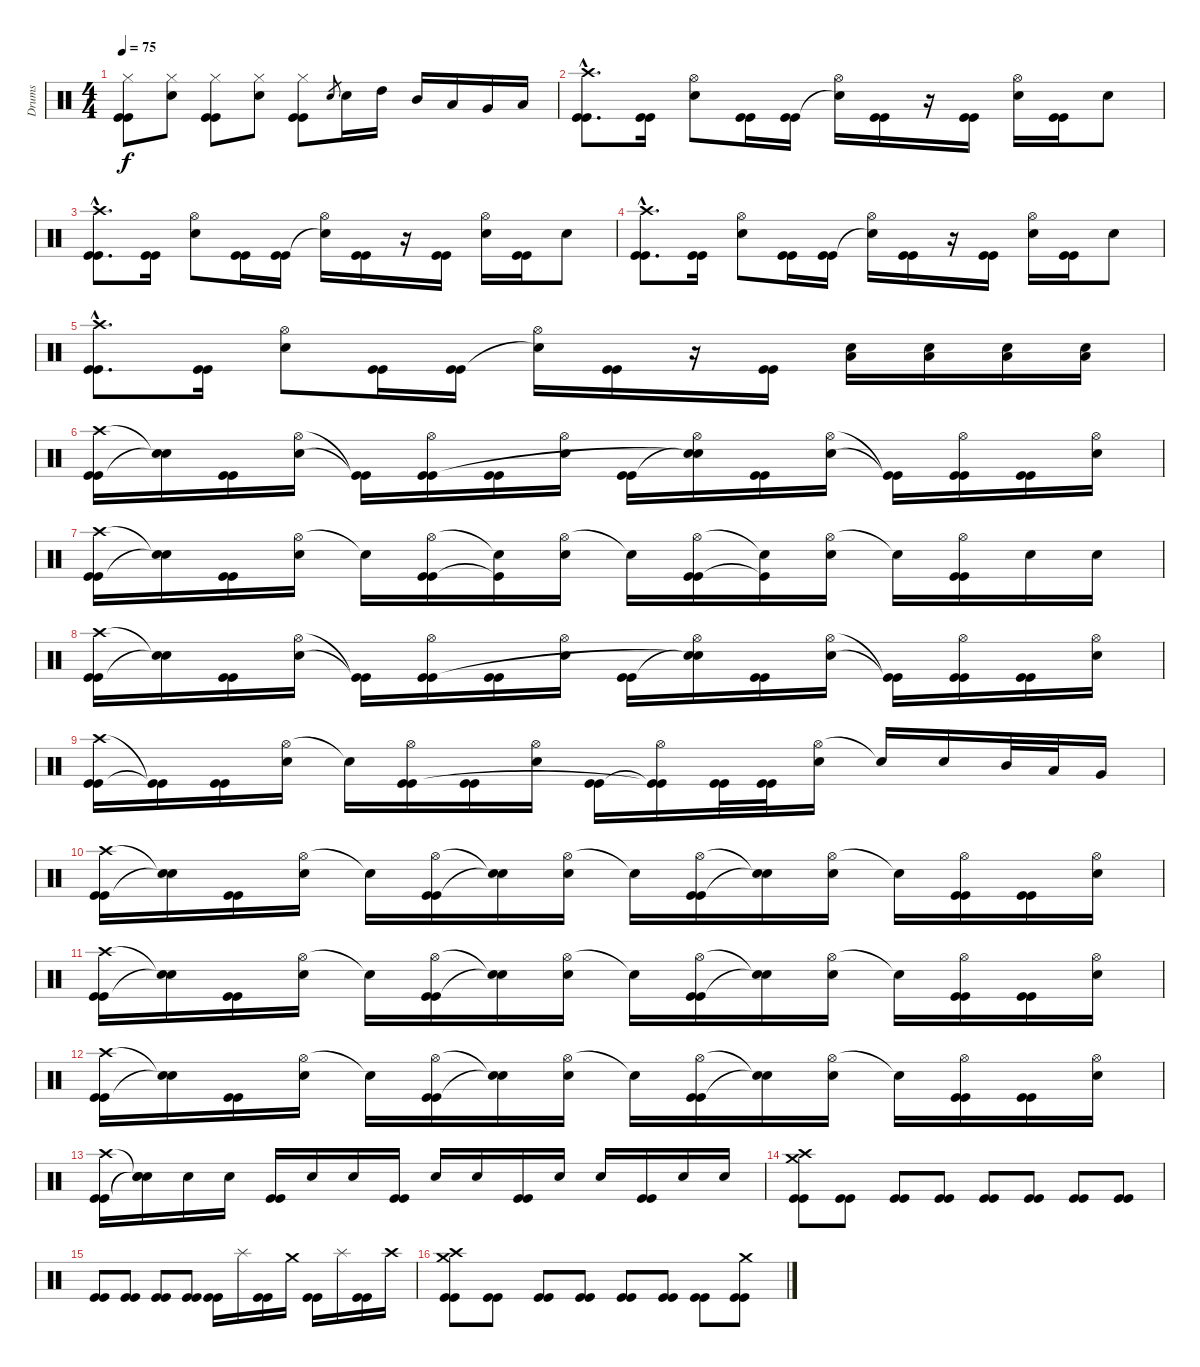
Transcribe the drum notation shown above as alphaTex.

\track ("Drums" "Drums") {instrument percussion}
\staff {score}
\articulation defaults
\ts (4 4)
\tempo 75
\clef neutral
\ks c
("Hi-Hat (closed)" "Kick (hit)" "Kick (hit)").8{dy f} ("Hi-Hat (closed)" "Snare (hit) 2").8 ("Hi-Hat (closed)" "Kick (hit)" "Kick (hit)").8 ("Hi-Hat (closed)" "Snare (hit) 2").8 ("Hi-Hat (closed)" "Kick (hit)" "Kick (hit)").8 "Snare (hit) 2".8{gr} "Snare (hit) 2".16 "High Tom (hit)".16 "Mid Tom (hit)".16 "Low Tom (hit)".16 "Very Low Tom (hit)".16 "Low Floor Tom (hit)".16 |
("Crash high (hit)"{hac} "Kick (hit)"{hac} "Kick (hit)"{hac}).8{d} ("Kick (hit)" "Kick (hit)").16 ("Hi-Hat (open)" "Snare (hit) 2").8 ("Kick (hit)" "Kick (hit)").16 ("Kick (hit)" "Kick (hit)").16 ("Hi-Hat (open)" "Snare (hit)"{t}).16 ("Kick (hit)" "Kick (hit)").16 r.16 ("Kick (hit)" "Kick (hit)").16 ("Hi-Hat (open)" "Snare (hit) 2").16 ("Kick (hit)" "Kick (hit)").16 "Snare (hit) 2".8 |
("Crash high (hit)"{hac} "Kick (hit)"{hac} "Kick (hit)"{hac}).8{d} ("Kick (hit)" "Kick (hit)").16 ("Hi-Hat (open)" "Snare (hit) 2").8 ("Kick (hit)" "Kick (hit)").16 ("Kick (hit)" "Kick (hit)").16 ("Hi-Hat (open)" "Snare (hit)"{t}).16 ("Kick (hit)" "Kick (hit)").16 r.16 ("Kick (hit)" "Kick (hit)").16 ("Hi-Hat (open)" "Snare (hit) 2").16 ("Kick (hit)" "Kick (hit)").16 "Snare (hit) 2".8 |
("Crash high (hit)"{hac} "Kick (hit)"{hac} "Kick (hit)"{hac}).8{d} ("Kick (hit)" "Kick (hit)").16 ("Hi-Hat (open)" "Snare (hit) 2").8 ("Kick (hit)" "Kick (hit)").16 ("Kick (hit)" "Kick (hit)").16 ("Hi-Hat (open)" "Snare (hit)"{t}).16 ("Kick (hit)" "Kick (hit)").16 r.16 ("Kick (hit)" "Kick (hit)").16 ("Hi-Hat (open)" "Snare (hit) 2").16 ("Kick (hit)" "Kick (hit)").16 "Snare (hit) 2".8 |
("Crash high (hit)"{hac} "Kick (hit)"{hac} "Kick (hit)"{hac}).8{d} ("Kick (hit)" "Kick (hit)").16 ("Hi-Hat (open)" "Snare (hit) 2").8 ("Kick (hit)" "Kick (hit)").16 ("Kick (hit)" "Kick (hit)").16 ("Hi-Hat (open)" "Snare (hit)"{t}).16 ("Kick (hit)" "Kick (hit)").16 r.16 ("Kick (hit)" "Kick (hit)").16 ("Snare (hit) 2" "Low Floor Tom (hit)").16 ("Snare (hit) 2" "Low Floor Tom (hit)").16 ("Snare (hit) 2" "Low Floor Tom (hit)").16 ("Snare (hit) 2" "Low Floor Tom (hit)").16 |
("Crash high (hit)" "Kick (hit)" "Kick (hit)").16 ("Snare (hit)"{t} "Snare (hit)"{t}).16 ("Kick (hit)" "Kick (hit)").16 ("Hi-Hat (open)" "Snare (hit) 2").16 ("Kick (hit)"{t} "Kick (hit)"{t}).16 ("Hi-Hat (open)" "Kick (hit)" "Kick (hit)").16 ("Kick (hit)" "Kick (hit)").16 ("Hi-Hat (open)" "Snare (hit) 2").16 ("Kick (hit)" "Kick (hit)").16 ("Hi-Hat (open)" "Snare (hit)"{t} "Snare (hit)"{t}).16 ("Kick (hit)" "Kick (hit)").16 ("Hi-Hat (open)" "Snare (hit) 2").16 ("Kick (hit)"{t} "Kick (hit)"{t}).16 ("Hi-Hat (open)" "Kick (hit)" "Kick (hit)").16 ("Kick (hit)" "Kick (hit)").16 ("Hi-Hat (open)" "Snare (hit) 2").16 |
("Crash high (hit)" "Kick (hit)" "Kick (hit)").16 ("Snare (hit)"{t} "Snare (hit)"{t}).16 ("Kick (hit)" "Kick (hit)").16 ("Hi-Hat (open)" "Snare (hit) 2").16 "Snare (hit)"{t}.16 ("Hi-Hat (open)" "Kick (hit)" "Kick (hit)").16 ("Snare (hit)"{t} "Kick (hit)"{t}).16 ("Hi-Hat (open)" "Snare (hit) 2").16 "Snare (hit)"{t}.16 ("Hi-Hat (open)" "Kick (hit)" "Kick (hit)").16 ("Snare (hit)"{t} "Kick (hit)"{t}).16 ("Hi-Hat (open)" "Snare (hit) 2").16 "Snare (hit)"{t}.16 ("Hi-Hat (open)" "Kick (hit)" "Kick (hit)").16 "Snare (hit) 2".16 "Snare (hit) 2".16 |
("Crash high (hit)" "Kick (hit)" "Kick (hit)").16 ("Snare (hit)"{t} "Snare (hit)"{t}).16 ("Kick (hit)" "Kick (hit)").16 ("Hi-Hat (open)" "Snare (hit) 2").16 ("Kick (hit)"{t} "Kick (hit)"{t}).16 ("Hi-Hat (open)" "Kick (hit)" "Kick (hit)").16 ("Kick (hit)" "Kick (hit)").16 ("Hi-Hat (open)" "Snare (hit) 2").16 ("Kick (hit)" "Kick (hit)").16 ("Hi-Hat (open)" "Snare (hit)"{t} "Snare (hit)"{t}).16 ("Kick (hit)" "Kick (hit)").16 ("Hi-Hat (open)" "Snare (hit) 2").16 ("Kick (hit)"{t} "Kick (hit)"{t}).16 ("Hi-Hat (open)" "Kick (hit)" "Kick (hit)").16 ("Kick (hit)" "Kick (hit)").16 ("Hi-Hat (open)" "Snare (hit) 2").16 |
("Crash high (hit)" "Kick (hit)" "Kick (hit)").16 ("Kick (hit)"{t} "Kick (hit)"{t}).16 ("Kick (hit)" "Kick (hit)").16 ("Hi-Hat (open)" "Snare (hit) 2").16 "Snare (hit)"{t}.16 ("Hi-Hat (open)" "Kick (hit)" "Kick (hit)").16 ("Kick (hit)" "Kick (hit)").16 ("Hi-Hat (open)" "Snare (hit) 2").16 ("Kick (hit)" "Kick (hit)").16 ("Hi-Hat (open)" "Kick (hit)"{t} "Kick (hit)"{t}).16 ("Kick (hit)" "Kick (hit)").32 ("Kick (hit)" "Kick (hit)").32 ("Hi-Hat (open)" "Snare (hit) 2").16 "Snare (hit)"{t}.16 "Snare (hit) 2".16 "Mid Tom (hit)".32 "Low Tom (hit)".32 "Very Low Tom (hit)".16 |
("Crash high (hit)" "Kick (hit)" "Kick (hit)").16 ("Snare (hit)"{t} "Snare (hit)"{t}).16 ("Kick (hit)" "Kick (hit)").16 ("Hi-Hat (open)" "Snare (hit) 2").16 "Snare (hit)"{t}.16 ("Hi-Hat (open)" "Kick (hit)" "Kick (hit)").16 ("Snare (hit)"{t} "Snare (hit)"{t}).16 ("Hi-Hat (open)" "Snare (hit) 2").16 "Snare (hit)"{t}.16 ("Hi-Hat (open)" "Kick (hit)" "Kick (hit)").16 ("Snare (hit)"{t} "Snare (hit)"{t}).16 ("Hi-Hat (open)" "Snare (hit) 2").16 "Snare (hit)"{t}.16 ("Hi-Hat (open)" "Kick (hit)" "Kick (hit)").16 ("Kick (hit)" "Kick (hit)").16 ("Hi-Hat (open)" "Snare (hit) 2").16 |
("Crash high (hit)" "Kick (hit)" "Kick (hit)").16 ("Snare (hit)"{t} "Snare (hit)"{t}).16 ("Kick (hit)" "Kick (hit)").16 ("Hi-Hat (open)" "Snare (hit) 2").16 "Snare (hit)"{t}.16 ("Hi-Hat (open)" "Kick (hit)" "Kick (hit)").16 ("Snare (hit)"{t} "Snare (hit)"{t}).16 ("Hi-Hat (open)" "Snare (hit) 2").16 "Snare (hit)"{t}.16 ("Hi-Hat (open)" "Kick (hit)" "Kick (hit)").16 ("Snare (hit)"{t} "Snare (hit)"{t}).16 ("Hi-Hat (open)" "Snare (hit) 2").16 "Snare (hit)"{t}.16 ("Hi-Hat (open)" "Kick (hit)" "Kick (hit)").16 ("Kick (hit)" "Kick (hit)").16 ("Hi-Hat (open)" "Snare (hit) 2").16 |
("Crash high (hit)" "Kick (hit)" "Kick (hit)").16 ("Snare (hit)"{t} "Snare (hit)"{t}).16 ("Kick (hit)" "Kick (hit)").16 ("Hi-Hat (open)" "Snare (hit) 2").16 "Snare (hit)"{t}.16 ("Hi-Hat (open)" "Kick (hit)" "Kick (hit)").16 ("Snare (hit)"{t} "Snare (hit)"{t}).16 ("Hi-Hat (open)" "Snare (hit) 2").16 "Snare (hit)"{t}.16 ("Hi-Hat (open)" "Kick (hit)" "Kick (hit)").16 ("Snare (hit)"{t} "Snare (hit)"{t}).16 ("Hi-Hat (open)" "Snare (hit) 2").16 "Snare (hit)"{t}.16 ("Hi-Hat (open)" "Kick (hit)" "Kick (hit)").16 ("Kick (hit)" "Kick (hit)").16 ("Hi-Hat (open)" "Snare (hit) 2").16 |
("Crash high (hit)" "Kick (hit)" "Kick (hit)").16 ("Snare (hit)"{t} "Snare (hit)"{t} "Snare (hit)"{t}).16 "Snare (hit) 2".16 "Snare (hit) 2".16 ("Kick (hit)" "Kick (hit)").16 "Snare (hit) 2".16 "Snare (hit) 2".16 ("Kick (hit)" "Kick (hit)").16 "Snare (hit) 2".16 "Snare (hit) 2".16 ("Kick (hit)" "Kick (hit)").16 "Snare (hit) 2".16 "Snare (hit) 2".16 ("Kick (hit)" "Kick (hit)").16 "Snare (hit) 2".16 "Snare (hit) 2".16 |
("Crash high (hit)" "Crash medium (hit)" "Kick (hit)" "Kick (hit)").8 ("Kick (hit)" "Kick (hit)").8 ("Kick (hit)" "Kick (hit)").8 ("Kick (hit)" "Kick (hit)").8 ("Kick (hit)" "Kick (hit)").8 ("Kick (hit)" "Kick (hit)").8 ("Kick (hit)" "Kick (hit)").8 ("Kick (hit)" "Kick (hit)").8 |
("Kick (hit)" "Kick (hit)").8 ("Kick (hit)" "Kick (hit)").8 ("Kick (hit)" "Kick (hit)").8 ("Kick (hit)" "Kick (hit)").8 ("Kick (hit)" "Kick (hit)").16 "Splash (hit)".16 ("Kick (hit)" "Kick (hit)").16 "Crash medium (hit)".16 ("Kick (hit)" "Kick (hit)").16 "Splash (hit)".16 ("Kick (hit)" "Kick (hit)").16 "Crash high (hit)".16 |
("Crash high (hit)" "Crash medium (hit)" "Kick (hit)" "Kick (hit)").8 ("Kick (hit)" "Kick (hit)").8 ("Kick (hit)" "Kick (hit)").8 ("Kick (hit)" "Kick (hit)").8 ("Kick (hit)" "Kick (hit)").8 ("Kick (hit)" "Kick (hit)").8 ("Kick (hit)" "Kick (hit)").8 ("Crash medium (hit)" "Kick (hit)" "Kick (hit)").8
